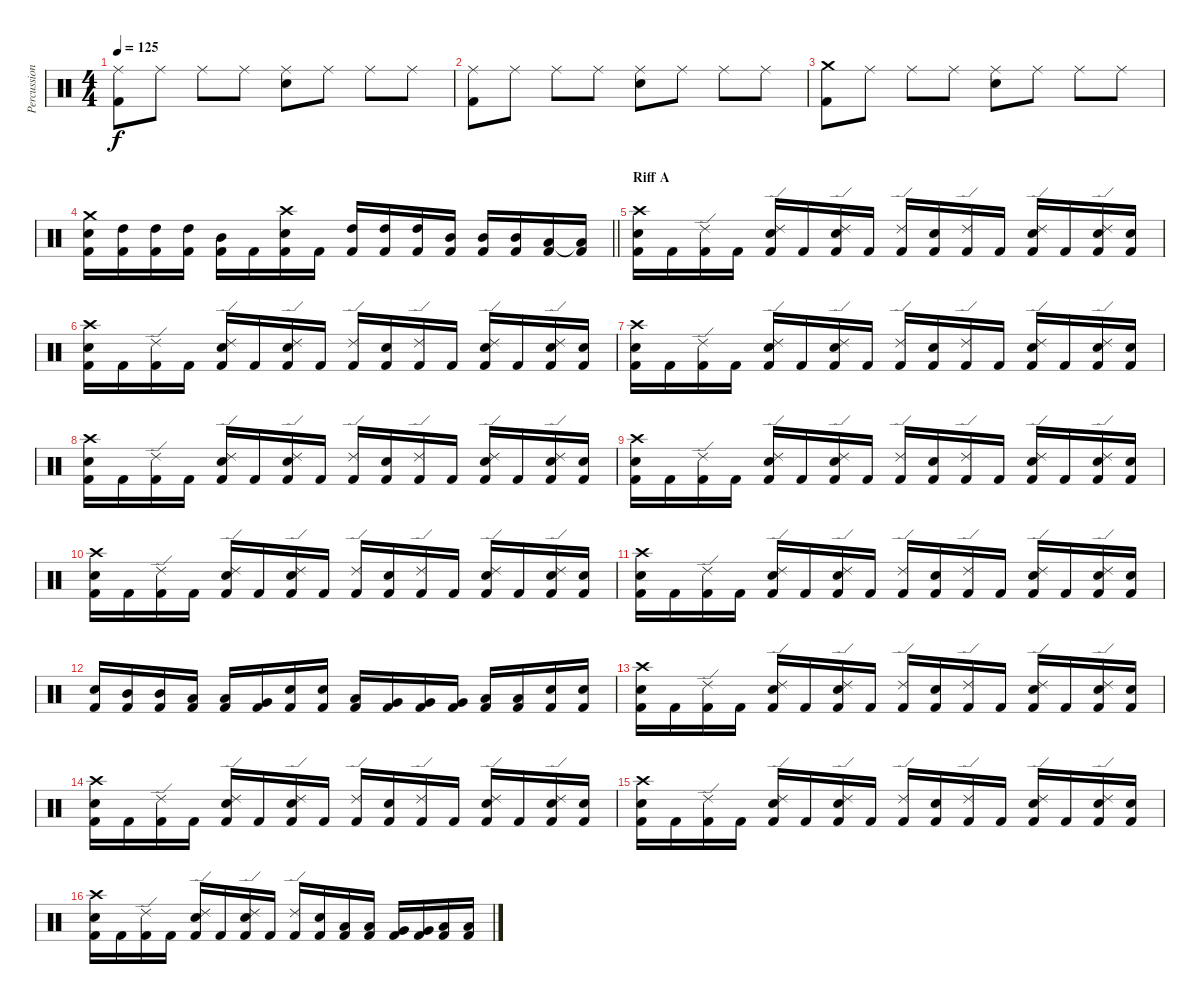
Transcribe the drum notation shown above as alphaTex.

\track ("Percussion" "Percussion") {instrument percussion}
\staff {score}
\articulation defaults
\ts (4 4)
\tempo 125
\clef neutral
\ks c
("Ride (middle)" "Kick (hit) 2").8{dy f} "Ride (middle)".8 "Ride (middle)".8 "Ride (middle)".8 ("Ride (middle)" "Snare (hit) 2").8 "Ride (middle)".8 "Ride (middle)".8 "Ride (middle)".8 |
("Ride (middle)" "Kick (hit) 2").8 "Ride (middle)".8 "Ride (middle)".8 "Ride (middle)".8 ("Ride (middle)" "Snare (hit) 2").8 "Ride (middle)".8 "Ride (middle)".8 "Ride (middle)".8 |
("Crash medium (hit)" "Kick (hit) 2").8 "Ride (middle)".8 "Ride (middle)".8 "Ride (middle)".8 ("Ride (middle)" "Snare (hit) 2").8 "Ride (middle)".8 "Ride (middle)".8 "Ride (middle)".8 |
\barLineRight lightlight
("Crash medium (hit)" "Snare (hit) 2" "Kick (hit) 2").16 ("High Tom (hit)" "Kick (hit) 2").16 ("High Tom (hit)" "Kick (hit) 2").16 ("High Tom (hit)" "Kick (hit) 2").16 ("Mid Tom (hit)" "Kick (hit) 2").16 "Kick (hit) 2".16 ("Crash high (hit)" "Snare (hit) 2" "Kick (hit) 2").16 "Kick (hit) 2".16 ("High Tom (hit)" "Kick (hit) 2").16 ("High Tom (hit)" "Kick (hit) 2").16 ("High Tom (hit)" "Kick (hit) 2").16 ("Mid Tom (hit)" "Kick (hit) 2").16 ("Mid Tom (hit)" "Kick (hit) 2").16 ("Mid Tom (hit)" "Kick (hit) 2").16 ("Low Tom (hit)" "Kick (hit) 2").16 ("Low Tom (hit)"{t} "Kick (hit) 2").16 |
\section ("" "Riff A")
("Crash high (hit)" "Snare (hit) 2" "Kick (hit) 2").16 "Kick (hit) 2".16 ("Ride (edge) 2" "Kick (hit) 2").16 "Kick (hit) 2".16 ("Ride (edge) 2" "Snare (hit) 2" "Kick (hit) 2").16 "Kick (hit) 2".16 ("Ride (edge) 2" "Snare (hit) 2" "Kick (hit) 2").16 "Kick (hit) 2".16 ("Ride (edge) 2" "Kick (hit) 2").16 ("Snare (hit) 2" "Kick (hit) 2").16 ("Ride (edge) 2" "Kick (hit) 2").16 "Kick (hit) 2".16 ("Ride (edge) 2" "Snare (hit) 2" "Kick (hit) 2").16 "Kick (hit) 2".16 ("Ride (edge) 2" "Snare (hit) 2" "Kick (hit) 2").16 ("Snare (hit) 2" "Kick (hit) 2").16 |
("Crash high (hit)" "Snare (hit) 2" "Kick (hit) 2").16 "Kick (hit) 2".16 ("Ride (edge) 2" "Kick (hit) 2").16 "Kick (hit) 2".16 ("Ride (edge) 2" "Snare (hit) 2" "Kick (hit) 2").16 "Kick (hit) 2".16 ("Ride (edge) 2" "Snare (hit) 2" "Kick (hit) 2").16 "Kick (hit) 2".16 ("Ride (edge) 2" "Kick (hit) 2").16 ("Snare (hit) 2" "Kick (hit) 2").16 ("Ride (edge) 2" "Kick (hit) 2").16 "Kick (hit) 2".16 ("Ride (edge) 2" "Snare (hit) 2" "Kick (hit) 2").16 "Kick (hit) 2".16 ("Ride (edge) 2" "Snare (hit) 2" "Kick (hit) 2").16 ("Snare (hit) 2" "Kick (hit) 2").16 |
("Crash high (hit)" "Snare (hit) 2" "Kick (hit) 2").16 "Kick (hit) 2".16 ("Ride (edge) 2" "Kick (hit) 2").16 "Kick (hit) 2".16 ("Ride (edge) 2" "Snare (hit) 2" "Kick (hit) 2").16 "Kick (hit) 2".16 ("Ride (edge) 2" "Snare (hit) 2" "Kick (hit) 2").16 "Kick (hit) 2".16 ("Ride (edge) 2" "Kick (hit) 2").16 ("Snare (hit) 2" "Kick (hit) 2").16 ("Ride (edge) 2" "Kick (hit) 2").16 "Kick (hit) 2".16 ("Ride (edge) 2" "Snare (hit) 2" "Kick (hit) 2").16 "Kick (hit) 2".16 ("Ride (edge) 2" "Snare (hit) 2" "Kick (hit) 2").16 ("Snare (hit) 2" "Kick (hit) 2").16 |
("Crash high (hit)" "Snare (hit) 2" "Kick (hit) 2").16 "Kick (hit) 2".16 ("Ride (edge) 2" "Kick (hit) 2").16 "Kick (hit) 2".16 ("Ride (edge) 2" "Snare (hit) 2" "Kick (hit) 2").16 "Kick (hit) 2".16 ("Ride (edge) 2" "Snare (hit) 2" "Kick (hit) 2").16 "Kick (hit) 2".16 ("Ride (edge) 2" "Kick (hit) 2").16 ("Snare (hit) 2" "Kick (hit) 2").16 ("Ride (edge) 2" "Kick (hit) 2").16 "Kick (hit) 2".16 ("Ride (edge) 2" "Snare (hit) 2" "Kick (hit) 2").16 "Kick (hit) 2".16 ("Ride (edge) 2" "Snare (hit) 2" "Kick (hit) 2").16 ("Snare (hit) 2" "Kick (hit) 2").16 |
("Crash high (hit)" "Snare (hit) 2" "Kick (hit) 2").16 "Kick (hit) 2".16 ("Ride (edge) 2" "Kick (hit) 2").16 "Kick (hit) 2".16 ("Ride (edge) 2" "Snare (hit) 2" "Kick (hit) 2").16 "Kick (hit) 2".16 ("Ride (edge) 2" "Snare (hit) 2" "Kick (hit) 2").16 "Kick (hit) 2".16 ("Ride (edge) 2" "Kick (hit) 2").16 ("Snare (hit) 2" "Kick (hit) 2").16 ("Ride (edge) 2" "Kick (hit) 2").16 "Kick (hit) 2".16 ("Ride (edge) 2" "Snare (hit) 2" "Kick (hit) 2").16 "Kick (hit) 2".16 ("Ride (edge) 2" "Snare (hit) 2" "Kick (hit) 2").16 ("Snare (hit) 2" "Kick (hit) 2").16 |
("Crash high (hit)" "Snare (hit) 2" "Kick (hit) 2").16 "Kick (hit) 2".16 ("Ride (edge) 2" "Kick (hit) 2").16 "Kick (hit) 2".16 ("Ride (edge) 2" "Snare (hit) 2" "Kick (hit) 2").16 "Kick (hit) 2".16 ("Ride (edge) 2" "Snare (hit) 2" "Kick (hit) 2").16 "Kick (hit) 2".16 ("Ride (edge) 2" "Kick (hit) 2").16 ("Snare (hit) 2" "Kick (hit) 2").16 ("Ride (edge) 2" "Kick (hit) 2").16 "Kick (hit) 2".16 ("Ride (edge) 2" "Snare (hit) 2" "Kick (hit) 2").16 "Kick (hit) 2".16 ("Ride (edge) 2" "Snare (hit) 2" "Kick (hit) 2").16 ("Snare (hit) 2" "Kick (hit) 2").16 |
("Crash high (hit)" "Snare (hit) 2" "Kick (hit) 2").16 "Kick (hit) 2".16 ("Ride (edge) 2" "Kick (hit) 2").16 "Kick (hit) 2".16 ("Ride (edge) 2" "Snare (hit) 2" "Kick (hit) 2").16 "Kick (hit) 2".16 ("Ride (edge) 2" "Snare (hit) 2" "Kick (hit) 2").16 "Kick (hit) 2".16 ("Ride (edge) 2" "Kick (hit) 2").16 ("Snare (hit) 2" "Kick (hit) 2").16 ("Ride (edge) 2" "Kick (hit) 2").16 "Kick (hit) 2".16 ("Ride (edge) 2" "Snare (hit) 2" "Kick (hit) 2").16 "Kick (hit) 2".16 ("Ride (edge) 2" "Snare (hit) 2" "Kick (hit) 2").16 ("Snare (hit) 2" "Kick (hit) 2").16 |
("Snare (hit) 2" "Kick (hit) 2").16 ("Mid Tom (hit)" "Kick (hit) 2").16 ("Mid Tom (hit)" "Kick (hit) 2").16 ("Low Tom (hit)" "Kick (hit) 2").16 ("Low Tom (hit)" "Kick (hit) 2").16 ("Very Low Tom (hit)" "Kick (hit) 2").16 ("Snare (hit) 2" "Kick (hit) 2").16 ("Snare (hit) 2" "Kick (hit) 2").16 ("Low Tom (hit)" "Kick (hit) 2").16 ("Very Low Tom (hit)" "Kick (hit) 2").16 ("Very Low Tom (hit)" "Kick (hit) 2").16 ("Very Low Tom (hit)" "Kick (hit) 2").16 ("Low Floor Tom (hit)" "Kick (hit) 2").16 ("Low Floor Tom (hit)" "Kick (hit) 2").16 ("Snare (hit) 2" "Kick (hit) 2").16 ("Snare (hit) 2" "Kick (hit) 2").16 |
("Crash high (hit)" "Snare (hit) 2" "Kick (hit) 2").16 "Kick (hit) 2".16 ("Ride (edge) 2" "Kick (hit) 2").16 "Kick (hit) 2".16 ("Ride (edge) 2" "Snare (hit) 2" "Kick (hit) 2").16 "Kick (hit) 2".16 ("Ride (edge) 2" "Snare (hit) 2" "Kick (hit) 2").16 "Kick (hit) 2".16 ("Ride (edge) 2" "Kick (hit) 2").16 ("Snare (hit) 2" "Kick (hit) 2").16 ("Ride (edge) 2" "Kick (hit) 2").16 "Kick (hit) 2".16 ("Ride (edge) 2" "Snare (hit) 2" "Kick (hit) 2").16 "Kick (hit) 2".16 ("Ride (edge) 2" "Snare (hit) 2" "Kick (hit) 2").16 ("Snare (hit) 2" "Kick (hit) 2").16 |
("Crash high (hit)" "Snare (hit) 2" "Kick (hit) 2").16 "Kick (hit) 2".16 ("Ride (edge) 2" "Kick (hit) 2").16 "Kick (hit) 2".16 ("Ride (edge) 2" "Snare (hit) 2" "Kick (hit) 2").16 "Kick (hit) 2".16 ("Ride (edge) 2" "Snare (hit) 2" "Kick (hit) 2").16 "Kick (hit) 2".16 ("Ride (edge) 2" "Kick (hit) 2").16 ("Snare (hit) 2" "Kick (hit) 2").16 ("Ride (edge) 2" "Kick (hit) 2").16 "Kick (hit) 2".16 ("Ride (edge) 2" "Snare (hit) 2" "Kick (hit) 2").16 "Kick (hit) 2".16 ("Ride (edge) 2" "Snare (hit) 2" "Kick (hit) 2").16 ("Snare (hit) 2" "Kick (hit) 2").16 |
("Crash high (hit)" "Snare (hit) 2" "Kick (hit) 2").16 "Kick (hit) 2".16 ("Ride (edge) 2" "Kick (hit) 2").16 "Kick (hit) 2".16 ("Ride (edge) 2" "Snare (hit) 2" "Kick (hit) 2").16 "Kick (hit) 2".16 ("Ride (edge) 2" "Snare (hit) 2" "Kick (hit) 2").16 "Kick (hit) 2".16 ("Ride (edge) 2" "Kick (hit) 2").16 ("Snare (hit) 2" "Kick (hit) 2").16 ("Ride (edge) 2" "Kick (hit) 2").16 "Kick (hit) 2".16 ("Ride (edge) 2" "Snare (hit) 2" "Kick (hit) 2").16 "Kick (hit) 2".16 ("Ride (edge) 2" "Snare (hit) 2" "Kick (hit) 2").16 ("Snare (hit) 2" "Kick (hit) 2").16 |
("Crash high (hit)" "Snare (hit) 2" "Kick (hit) 2").16 "Kick (hit) 2".16 ("Ride (edge) 2" "Kick (hit) 2").16 "Kick (hit) 2".16 ("Ride (edge) 2" "Snare (hit) 2" "Kick (hit) 2").16 "Kick (hit) 2".16 ("Ride (edge) 2" "Snare (hit) 2" "Kick (hit) 2").16 "Kick (hit) 2".16 ("Ride (edge) 2" "Kick (hit) 2").16 ("Snare (hit) 2" "Kick (hit) 2").16 ("Low Tom (hit)" "Kick (hit) 2").16 ("Low Tom (hit)" "Kick (hit) 2").16 ("Very Low Tom (hit)" "Kick (hit) 2").16 ("Very Low Tom (hit)" "Kick (hit) 2").16 ("Low Floor Tom (hit)" "Kick (hit) 2").16 ("Low Floor Tom (hit)" "Kick (hit) 2").16
